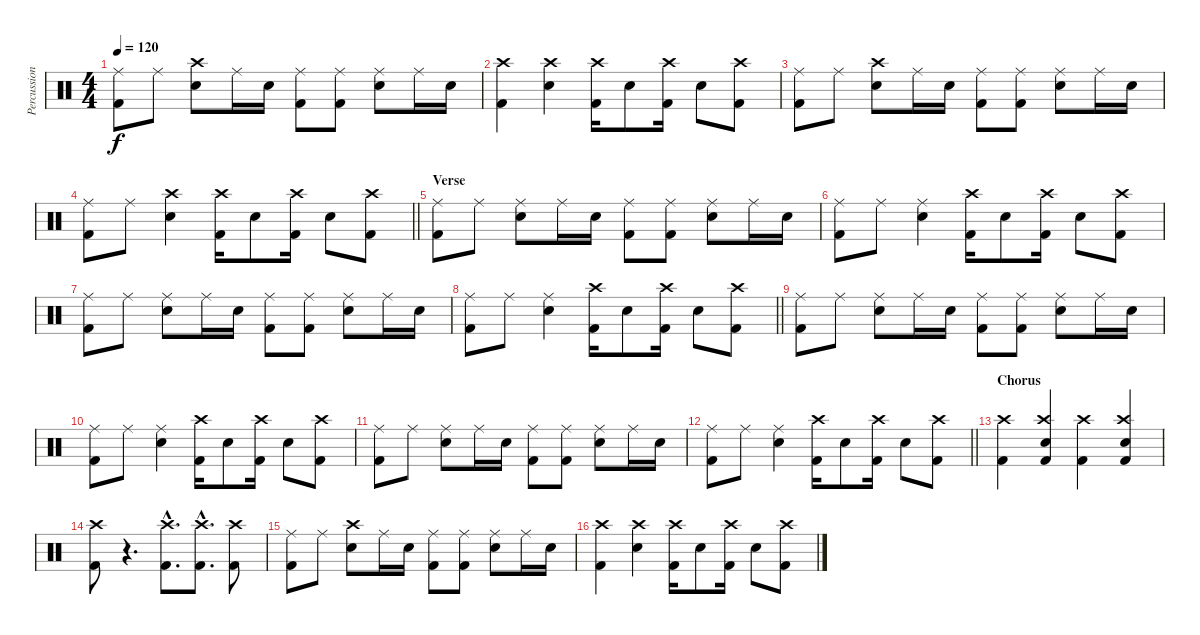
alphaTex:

\track ("Percussion" "Percussion") {instrument percussion}
\staff {score}
\articulation defaults
\ts (4 4)
\tempo 120
\clef neutral
\ks c
("Ride (middle)" "Kick (hit) 2").8{dy f} "Ride (middle)".8 ("Crash high (hit)" "Electric Snare (hit)").8 "Ride (middle)".16 "Electric Snare (hit)".16 ("Ride (middle)" "Kick (hit) 2").8 ("Ride (middle)" "Kick (hit) 2").8 ("Ride (middle)" "Electric Snare (hit)").8 "Ride (middle)".16 "Electric Snare (hit)".16 |
("Crash high (hit)" "Kick (hit) 2").4 ("Crash high (hit)" "Electric Snare (hit)").4 ("Crash high (hit)" "Kick (hit) 2").16 "Electric Snare (hit)".8 ("Crash high (hit)" "Kick (hit) 2").16 "Electric Snare (hit)".8 ("Crash high (hit)" "Kick (hit) 2").8 |
("Ride (middle)" "Kick (hit) 2").8 "Ride (middle)".8 ("Crash high (hit)" "Electric Snare (hit)").8 "Ride (middle)".16 "Electric Snare (hit)".16 ("Ride (middle)" "Kick (hit) 2").8 ("Ride (middle)" "Kick (hit) 2").8 ("Ride (middle)" "Electric Snare (hit)").8 "Ride (middle)".16 "Electric Snare (hit)".16 |
\barLineRight lightlight
("Ride (middle)" "Kick (hit) 2").8 "Ride (middle)".8 ("Crash high (hit)" "Electric Snare (hit)").4 ("Crash high (hit)" "Kick (hit) 2").16 "Electric Snare (hit)".8 ("Crash high (hit)" "Kick (hit) 2").16 "Electric Snare (hit)".8 ("Crash high (hit)" "Kick (hit) 2").8 |
\section ("" "Verse")
("Ride (middle)" "Kick (hit) 2").8 "Ride (middle)".8 ("Ride (middle)" "Electric Snare (hit)").8 "Ride (middle)".16 "Electric Snare (hit)".16 ("Ride (middle)" "Kick (hit) 2").8 ("Ride (middle)" "Kick (hit) 2").8 ("Ride (middle)" "Electric Snare (hit)").8 "Ride (middle)".16 "Electric Snare (hit)".16 |
("Ride (middle)" "Kick (hit) 2").8 "Ride (middle)".8 ("Ride (middle)" "Electric Snare (hit)").4 ("Crash high (hit)" "Kick (hit) 2").16 "Electric Snare (hit)".8 ("Crash high (hit)" "Kick (hit) 2").16 "Electric Snare (hit)".8 ("Crash high (hit)" "Kick (hit) 2").8 |
("Ride (middle)" "Kick (hit) 2").8 "Ride (middle)".8 ("Ride (middle)" "Electric Snare (hit)").8 "Ride (middle)".16 "Electric Snare (hit)".16 ("Ride (middle)" "Kick (hit) 2").8 ("Ride (middle)" "Kick (hit) 2").8 ("Ride (middle)" "Electric Snare (hit)").8 "Ride (middle)".16 "Electric Snare (hit)".16 |
\barLineRight lightlight
("Ride (middle)" "Kick (hit) 2").8 "Ride (middle)".8 ("Ride (middle)" "Electric Snare (hit)").4 ("Crash high (hit)" "Kick (hit) 2").16 "Electric Snare (hit)".8 ("Crash high (hit)" "Kick (hit) 2").16 "Electric Snare (hit)".8 ("Crash high (hit)" "Kick (hit) 2").8 |
("Ride (middle)" "Kick (hit) 2").8 "Ride (middle)".8 ("Ride (middle)" "Electric Snare (hit)").8 "Ride (middle)".16 "Electric Snare (hit)".16 ("Ride (middle)" "Kick (hit) 2").8 ("Ride (middle)" "Kick (hit) 2").8 ("Ride (middle)" "Electric Snare (hit)").8 "Ride (middle)".16 "Electric Snare (hit)".16 |
("Ride (middle)" "Kick (hit) 2").8 "Ride (middle)".8 ("Ride (middle)" "Electric Snare (hit)").4 ("Crash high (hit)" "Kick (hit) 2").16 "Electric Snare (hit)".8 ("Crash high (hit)" "Kick (hit) 2").16 "Electric Snare (hit)".8 ("Crash high (hit)" "Kick (hit) 2").8 |
("Ride (middle)" "Kick (hit) 2").8 "Ride (middle)".8 ("Ride (middle)" "Electric Snare (hit)").8 "Ride (middle)".16 "Electric Snare (hit)".16 ("Ride (middle)" "Kick (hit) 2").8 ("Ride (middle)" "Kick (hit) 2").8 ("Ride (middle)" "Electric Snare (hit)").8 "Ride (middle)".16 "Electric Snare (hit)".16 |
\barLineRight lightlight
("Ride (middle)" "Kick (hit) 2").8 "Ride (middle)".8 ("Ride (middle)" "Electric Snare (hit)").4 ("Crash high (hit)" "Kick (hit) 2").16 "Electric Snare (hit)".8 ("Crash high (hit)" "Kick (hit) 2").16 "Electric Snare (hit)".8 ("Crash high (hit)" "Kick (hit) 2").8 |
\section ("" "Chorus")
("Crash high (hit)" "Kick (hit) 2").4 ("Crash high (hit)" "Electric Snare (hit)" "Kick (hit) 2").4 ("Crash high (hit)" "Kick (hit) 2").4 ("Crash high (hit)" "Electric Snare (hit)" "Kick (hit) 2").4 |
("Crash high (hit)" "Kick (hit) 2").8 r.4{d} ("Crash high (hit)"{hac} "Kick (hit) 2"{hac}).8{d} ("Crash high (hit)"{hac} "Kick (hit) 2"{hac}).8{d} ("Crash high (hit)" "Kick (hit) 2").8 |
("Ride (middle)" "Kick (hit) 2").8 "Ride (middle)".8 ("Crash high (hit)" "Electric Snare (hit)").8 "Ride (middle)".16 "Electric Snare (hit)".16 ("Ride (middle)" "Kick (hit) 2").8 ("Ride (middle)" "Kick (hit) 2").8 ("Ride (middle)" "Electric Snare (hit)").8 "Ride (middle)".16 "Electric Snare (hit)".16 |
("Crash high (hit)" "Kick (hit) 2").4 ("Crash high (hit)" "Electric Snare (hit)").4 ("Crash high (hit)" "Kick (hit) 2").16 "Electric Snare (hit)".8 ("Crash high (hit)" "Kick (hit) 2").16 "Electric Snare (hit)".8 ("Crash high (hit)" "Kick (hit) 2").8
